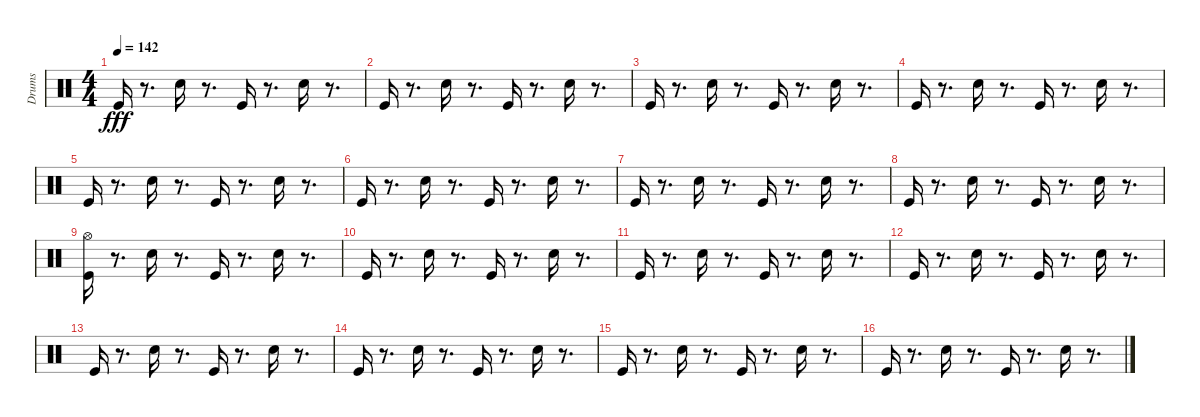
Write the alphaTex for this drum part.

\track ("Drums" "Drums") {instrument percussion}
\staff {score}
\articulation defaults
\ts (4 4)
\tempo 142
\clef neutral
\ks c "Kick (hit)".16{dy fff}
r.8{d} "Snare (hit) 2".16 r.8{d} "Kick (hit)".16 r.8{d} "Snare (hit) 2".16 r.8{d} |
"Kick (hit)".16 r.8{d} "Snare (hit) 2".16 r.8{d} "Kick (hit)".16 r.8{d} "Snare (hit) 2".16 r.8{d} |
"Kick (hit)".16 r.8{d} "Snare (hit) 2".16 r.8{d} "Kick (hit)".16 r.8{d} "Snare (hit) 2".16 r.8{d} |
"Kick (hit)".16 r.8{d} "Snare (hit) 2".16 r.8{d} "Kick (hit)".16 r.8{d} "Snare (hit) 2".16 r.8{d} |
"Kick (hit)".16 r.8{d} "Snare (hit) 2".16 r.8{d} "Kick (hit)".16 r.8{d} "Snare (hit) 2".16 r.8{d} |
"Kick (hit)".16 r.8{d} "Snare (hit) 2".16 r.8{d} "Kick (hit)".16 r.8{d} "Snare (hit) 2".16 r.8{d} |
"Kick (hit)".16 r.8{d} "Snare (hit) 2".16 r.8{d} "Kick (hit)".16 r.8{d} "Snare (hit) 2".16 r.8{d} |
"Kick (hit)".16 r.8{d} "Snare (hit) 2".16 r.8{d} "Kick (hit)".16 r.8{d} "Snare (hit) 2".16 r.8{d} |
("Kick (hit)" "Hi-Hat (open)").16 r.8{d} "Snare (hit) 2".16 r.8{d} "Kick (hit)".16 r.8{d} "Snare (hit) 2".16 r.8{d} |
"Kick (hit)".16 r.8{d} "Snare (hit) 2".16 r.8{d} "Kick (hit)".16 r.8{d} "Snare (hit) 2".16 r.8{d} |
"Kick (hit)".16 r.8{d} "Snare (hit) 2".16 r.8{d} "Kick (hit)".16 r.8{d} "Snare (hit) 2".16 r.8{d} |
"Kick (hit)".16 r.8{d} "Snare (hit) 2".16 r.8{d} "Kick (hit)".16 r.8{d} "Snare (hit) 2".16 r.8{d} |
"Kick (hit)".16 r.8{d} "Snare (hit) 2".16 r.8{d} "Kick (hit)".16 r.8{d} "Snare (hit) 2".16 r.8{d} |
"Kick (hit)".16 r.8{d} "Snare (hit) 2".16 r.8{d} "Kick (hit)".16 r.8{d} "Snare (hit) 2".16 r.8{d} |
"Kick (hit)".16 r.8{d} "Snare (hit) 2".16 r.8{d} "Kick (hit)".16 r.8{d} "Snare (hit) 2".16 r.8{d} |
"Kick (hit)".16 r.8{d} "Snare (hit) 2".16 r.8{d} "Kick (hit)".16 r.8{d} "Snare (hit) 2".16 r.8{d}
